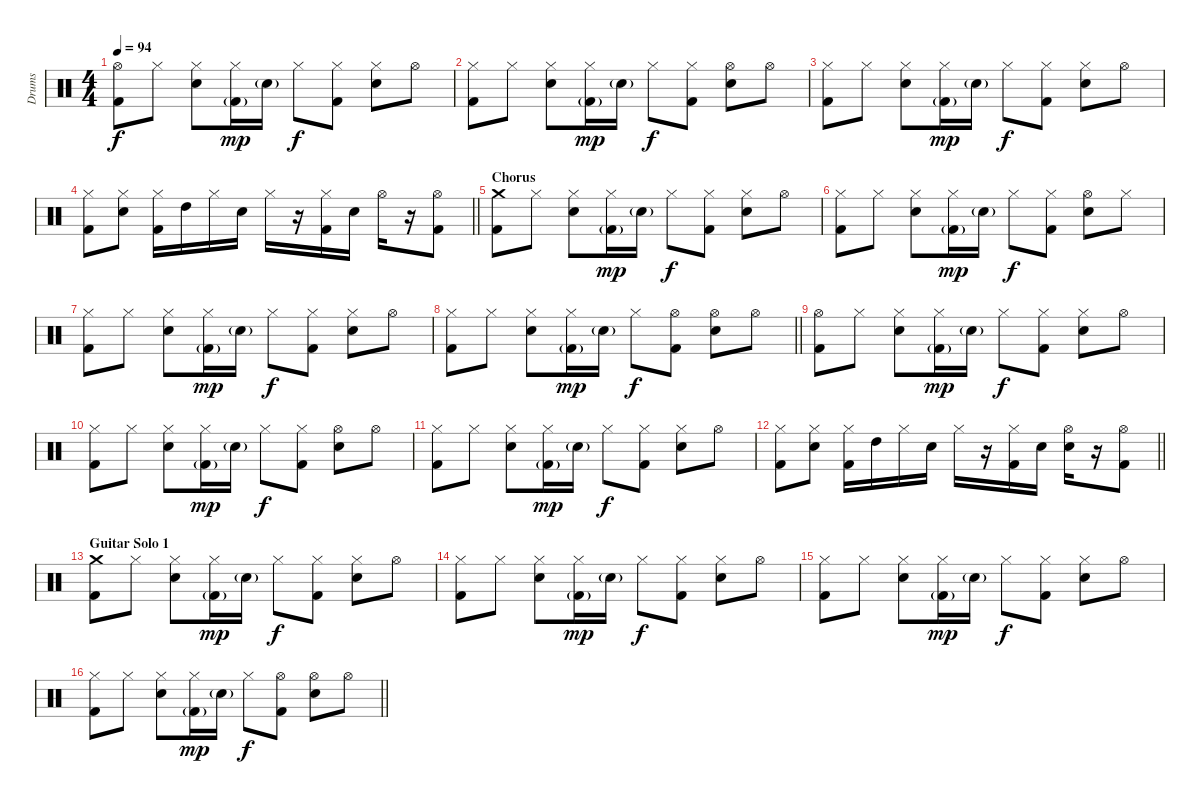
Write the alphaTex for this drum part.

\track ("Drums" "Drums") {instrument percussion}
\staff {score}
\articulation defaults
\ts (4 4)
\tempo 94
\clef neutral
\ks c
("Hi-Hat (open)" "Kick (hit) 2").8{dy f} "Hi-Hat (closed)".8 ("Hi-Hat (closed)" "Electric Snare (hit)").8 ("Hi-Hat (closed)" "Kick (hit) 2"{g}).16{dy mp} "Electric Snare (hit)"{g}.16 "Hi-Hat (closed)".8{dy f} ("Hi-Hat (closed)" "Kick (hit) 2").8 ("Hi-Hat (closed)" "Electric Snare (hit)").8 "Hi-Hat (open)".8 |
("Hi-Hat (closed)" "Kick (hit) 2").8 "Hi-Hat (closed)".8 ("Hi-Hat (closed)" "Electric Snare (hit)").8 ("Hi-Hat (closed)" "Kick (hit) 2"{g}).16{dy mp} "Electric Snare (hit)"{g}.16 "Hi-Hat (closed)".8{dy f} ("Hi-Hat (closed)" "Kick (hit) 2").8 ("Hi-Hat (open)" "Electric Snare (hit)").8 "Hi-Hat (open)".8 |
("Hi-Hat (closed)" "Kick (hit) 2").8 "Hi-Hat (closed)".8 ("Hi-Hat (closed)" "Electric Snare (hit)").8 ("Hi-Hat (closed)" "Kick (hit) 2"{g}).16{dy mp} "Electric Snare (hit)"{g}.16 "Hi-Hat (closed)".8{dy f} ("Hi-Hat (closed)" "Kick (hit) 2").8 ("Hi-Hat (closed)" "Electric Snare (hit)").8 "Hi-Hat (open)".8 |
\barLineRight lightlight
("Hi-Hat (closed)" "Kick (hit) 2").8 ("Hi-Hat (closed)" "Electric Snare (hit)").8 ("Hi-Hat (closed)" "Kick (hit) 2").16 "High Tom (hit)".16 "Hi-Hat (closed)".16 "Electric Snare (hit)".16 "Hi-Hat (closed)".16 r.16 ("Hi-Hat (closed)" "Kick (hit) 2").16 "Electric Snare (hit)".16 "Hi-Hat (open)".16 r.16 ("Hi-Hat (open)" "Kick (hit) 2").8 |
\section ("" "Chorus")
("Crash medium (hit)" "Kick (hit) 2").8 "Hi-Hat (closed)".8 ("Hi-Hat (closed)" "Electric Snare (hit)").8 ("Hi-Hat (closed)" "Kick (hit) 2"{g}).16{dy mp} "Electric Snare (hit)"{g}.16 "Hi-Hat (closed)".8{dy f} ("Hi-Hat (closed)" "Kick (hit) 2").8 ("Hi-Hat (closed)" "Electric Snare (hit)").8 "Hi-Hat (open)".8 |
("Hi-Hat (closed)" "Kick (hit) 2").8 "Hi-Hat (closed)".8 ("Hi-Hat (closed)" "Electric Snare (hit)").8 ("Hi-Hat (closed)" "Kick (hit) 2"{g}).16{dy mp} "Electric Snare (hit)"{g}.16 "Hi-Hat (closed)".8{dy f} ("Hi-Hat (closed)" "Kick (hit) 2").8 ("Hi-Hat (open)" "Electric Snare (hit)").8 "Hi-Hat (closed)".8 |
("Hi-Hat (closed)" "Kick (hit) 2").8 "Hi-Hat (closed)".8 ("Hi-Hat (closed)" "Electric Snare (hit)").8 ("Hi-Hat (closed)" "Kick (hit) 2"{g}).16{dy mp} "Electric Snare (hit)"{g}.16 "Hi-Hat (closed)".8{dy f} ("Hi-Hat (closed)" "Kick (hit) 2").8 ("Hi-Hat (closed)" "Electric Snare (hit)").8 "Hi-Hat (open)".8 |
\barLineRight lightlight
("Hi-Hat (closed)" "Kick (hit) 2").8 "Hi-Hat (closed)".8 ("Hi-Hat (closed)" "Electric Snare (hit)").8 ("Hi-Hat (closed)" "Kick (hit) 2"{g}).16{dy mp} "Electric Snare (hit)"{g}.16 "Hi-Hat (closed)".8{dy f} ("Hi-Hat (open)" "Kick (hit) 2").8 ("Hi-Hat (open)" "Electric Snare (hit)").8 "Hi-Hat (open)".8 |
("Hi-Hat (open)" "Kick (hit) 2").8 "Hi-Hat (closed)".8 ("Hi-Hat (closed)" "Electric Snare (hit)").8 ("Hi-Hat (closed)" "Kick (hit) 2"{g}).16{dy mp} "Electric Snare (hit)"{g}.16 "Hi-Hat (closed)".8{dy f} ("Hi-Hat (closed)" "Kick (hit) 2").8 ("Hi-Hat (closed)" "Electric Snare (hit)").8 "Hi-Hat (open)".8 |
("Hi-Hat (closed)" "Kick (hit) 2").8 "Hi-Hat (closed)".8 ("Hi-Hat (closed)" "Electric Snare (hit)").8 ("Hi-Hat (closed)" "Kick (hit) 2"{g}).16{dy mp} "Electric Snare (hit)"{g}.16 "Hi-Hat (closed)".8{dy f} ("Hi-Hat (closed)" "Kick (hit) 2").8 ("Hi-Hat (open)" "Electric Snare (hit)").8 "Hi-Hat (open)".8 |
("Hi-Hat (closed)" "Kick (hit) 2").8 "Hi-Hat (closed)".8 ("Hi-Hat (closed)" "Electric Snare (hit)").8 ("Hi-Hat (closed)" "Kick (hit) 2"{g}).16{dy mp} "Electric Snare (hit)"{g}.16 "Hi-Hat (closed)".8{dy f} ("Hi-Hat (closed)" "Kick (hit) 2").8 ("Hi-Hat (closed)" "Electric Snare (hit)").8 "Hi-Hat (open)".8 |
\barLineRight lightlight
("Hi-Hat (closed)" "Kick (hit) 2").8 ("Hi-Hat (closed)" "Electric Snare (hit)").8 ("Hi-Hat (closed)" "Kick (hit) 2").16 "High Tom (hit)".16 "Hi-Hat (closed)".16 "Electric Snare (hit)".16 "Hi-Hat (closed)".16 r.16 ("Hi-Hat (closed)" "Kick (hit) 2").16 "Electric Snare (hit)".16 ("Hi-Hat (open)" "Electric Snare (hit)").16 r.16 ("Hi-Hat (open)" "Kick (hit) 2").8 |
\section ("" "Guitar Solo 1")
("Crash medium (hit)" "Kick (hit) 2").8 "Hi-Hat (closed)".8 ("Hi-Hat (closed)" "Electric Snare (hit)").8 ("Hi-Hat (closed)" "Kick (hit) 2"{g}).16{dy mp} "Electric Snare (hit)"{g}.16 "Hi-Hat (closed)".8{dy f} ("Hi-Hat (closed)" "Kick (hit) 2").8 ("Hi-Hat (closed)" "Electric Snare (hit)").8 "Hi-Hat (open)".8 |
("Hi-Hat (closed)" "Kick (hit) 2").8 "Hi-Hat (closed)".8 ("Hi-Hat (closed)" "Electric Snare (hit)").8 ("Hi-Hat (closed)" "Kick (hit) 2"{g}).16{dy mp} "Electric Snare (hit)"{g}.16 "Hi-Hat (closed)".8{dy f} ("Hi-Hat (closed)" "Kick (hit) 2").8 ("Hi-Hat (closed)" "Electric Snare (hit)").8 "Hi-Hat (open)".8 |
("Hi-Hat (closed)" "Kick (hit) 2").8 "Hi-Hat (closed)".8 ("Hi-Hat (closed)" "Electric Snare (hit)").8 ("Hi-Hat (closed)" "Kick (hit) 2"{g}).16{dy mp} "Electric Snare (hit)"{g}.16 "Hi-Hat (closed)".8{dy f} ("Hi-Hat (closed)" "Kick (hit) 2").8 ("Hi-Hat (closed)" "Electric Snare (hit)").8 "Hi-Hat (open)".8 |
\barLineRight lightlight
("Hi-Hat (closed)" "Kick (hit) 2").8 "Hi-Hat (closed)".8 ("Hi-Hat (closed)" "Electric Snare (hit)").8 ("Hi-Hat (closed)" "Kick (hit) 2"{g}).16{dy mp} "Electric Snare (hit)"{g}.16 "Hi-Hat (closed)".8{dy f} ("Hi-Hat (open)" "Kick (hit) 2").8 ("Hi-Hat (open)" "Electric Snare (hit)").8 "Hi-Hat (open)".8
